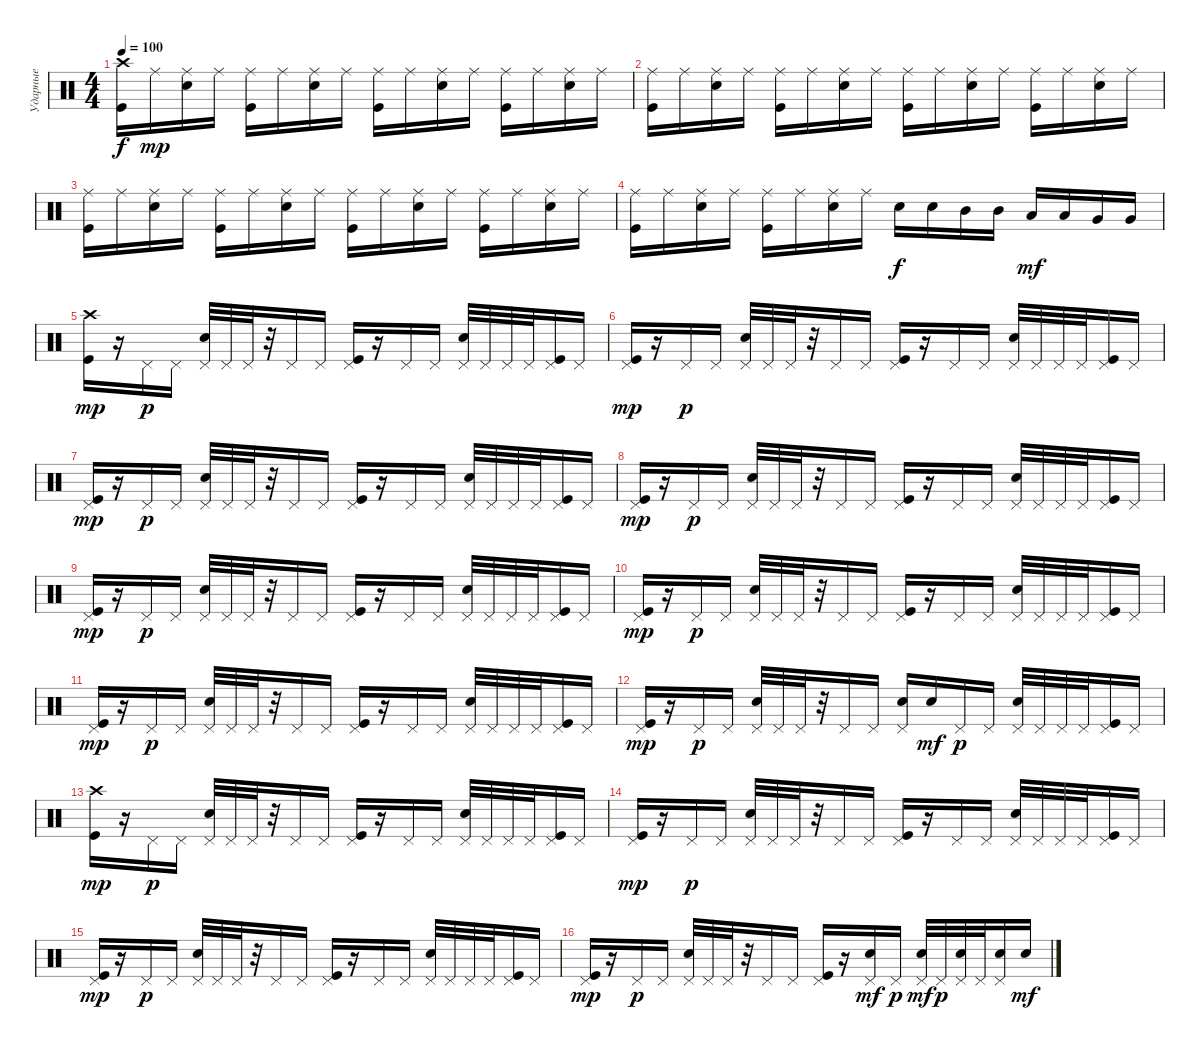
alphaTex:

\track ("Ударные" "Ударные") {instrument percussion}
\staff {score}
\articulation defaults
\ts (4 4)
\tempo 100
\clef neutral
\ks c
("Crash high (hit)" "Kick (hit)").16{dy f} "Ride (middle)".16{dy mp} ("Ride (middle)" "Snare (hit) 2").16 "Ride (middle)".16 ("Ride (middle)" "Kick (hit)").16 "Ride (middle)".16 ("Ride (middle)" "Snare (hit) 2").16 "Ride (middle)".16 ("Ride (middle)" "Kick (hit)").16 "Ride (middle)".16 ("Ride (middle)" "Snare (hit) 2").16 "Ride (middle)".16 ("Ride (middle)" "Kick (hit)").16 "Ride (middle)".16 ("Ride (middle)" "Snare (hit) 2").16 "Ride (middle)".16 |
("Ride (middle)" "Kick (hit)").16 "Ride (middle)".16 ("Ride (middle)" "Snare (hit) 2").16 "Ride (middle)".16 ("Ride (middle)" "Kick (hit)").16 "Ride (middle)".16 ("Ride (middle)" "Snare (hit) 2").16 "Ride (middle)".16 ("Ride (middle)" "Kick (hit)").16 "Ride (middle)".16 ("Ride (middle)" "Snare (hit) 2").16 "Ride (middle)".16 ("Ride (middle)" "Kick (hit)").16 "Ride (middle)".16 ("Ride (middle)" "Snare (hit) 2").16 "Ride (middle)".16 |
("Ride (middle)" "Kick (hit)").16 "Ride (middle)".16 ("Ride (middle)" "Snare (hit) 2").16 "Ride (middle)".16 ("Ride (middle)" "Kick (hit)").16 "Ride (middle)".16 ("Ride (middle)" "Snare (hit) 2").16 "Ride (middle)".16 ("Ride (middle)" "Kick (hit)").16 "Ride (middle)".16 ("Ride (middle)" "Snare (hit) 2").16 "Ride (middle)".16 ("Ride (middle)" "Kick (hit)").16 "Ride (middle)".16 ("Ride (middle)" "Snare (hit) 2").16 "Ride (middle)".16 |
("Ride (middle)" "Kick (hit)").16 "Ride (middle)".16 ("Ride (middle)" "Snare (hit) 2").16 "Ride (middle)".16 ("Ride (middle)" "Kick (hit)").16 "Ride (middle)".16 ("Ride (middle)" "Snare (hit) 2").16 "Ride (middle)".16 "Snare (hit) 2".16{dy f} "Snare (hit) 2".16 "Mid Tom (hit)".16 "Mid Tom (hit)".16 "Low Tom (hit)".16{dy mf} "Low Tom (hit)".16 "Very Low Tom (hit)".16 "Very Low Tom (hit)".16 |
("Crash high (hit)" "Kick (hit)").16{dy mp} r.16 "Pedal Hi-Hat (hit)".16{dy p} "Pedal Hi-Hat (hit)".16 ("Pedal Hi-Hat (hit)" "Snare (hit) 2").32 "Pedal Hi-Hat (hit)".32 "Pedal Hi-Hat (hit)".32 r.32 "Pedal Hi-Hat (hit)".16 "Pedal Hi-Hat (hit)".16 ("Pedal Hi-Hat (hit)" "Kick (hit)").16 r.16 "Pedal Hi-Hat (hit)".16 "Pedal Hi-Hat (hit)".16 ("Pedal Hi-Hat (hit)" "Snare (hit) 2").32 "Pedal Hi-Hat (hit)".32 "Pedal Hi-Hat (hit)".32 "Pedal Hi-Hat (hit)".32 ("Pedal Hi-Hat (hit)" "Kick (hit)").16 "Pedal Hi-Hat (hit)".16 |
("Pedal Hi-Hat (hit)" "Kick (hit)").16{dy mp} r.16 "Pedal Hi-Hat (hit)".16{dy p} "Pedal Hi-Hat (hit)".16 ("Pedal Hi-Hat (hit)" "Snare (hit) 2").32 "Pedal Hi-Hat (hit)".32 "Pedal Hi-Hat (hit)".32 r.32 "Pedal Hi-Hat (hit)".16 "Pedal Hi-Hat (hit)".16 ("Pedal Hi-Hat (hit)" "Kick (hit)").16 r.16 "Pedal Hi-Hat (hit)".16 "Pedal Hi-Hat (hit)".16 ("Pedal Hi-Hat (hit)" "Snare (hit) 2").32 "Pedal Hi-Hat (hit)".32 "Pedal Hi-Hat (hit)".32 "Pedal Hi-Hat (hit)".32 ("Pedal Hi-Hat (hit)" "Kick (hit)").16 "Pedal Hi-Hat (hit)".16 |
("Pedal Hi-Hat (hit)" "Kick (hit)").16{dy mp} r.16 "Pedal Hi-Hat (hit)".16{dy p} "Pedal Hi-Hat (hit)".16 ("Pedal Hi-Hat (hit)" "Snare (hit) 2").32 "Pedal Hi-Hat (hit)".32 "Pedal Hi-Hat (hit)".32 r.32 "Pedal Hi-Hat (hit)".16 "Pedal Hi-Hat (hit)".16 ("Pedal Hi-Hat (hit)" "Kick (hit)").16 r.16 "Pedal Hi-Hat (hit)".16 "Pedal Hi-Hat (hit)".16 ("Pedal Hi-Hat (hit)" "Snare (hit) 2").32 "Pedal Hi-Hat (hit)".32 "Pedal Hi-Hat (hit)".32 "Pedal Hi-Hat (hit)".32 ("Pedal Hi-Hat (hit)" "Kick (hit)").16 "Pedal Hi-Hat (hit)".16 |
("Pedal Hi-Hat (hit)" "Kick (hit)").16{dy mp} r.16 "Pedal Hi-Hat (hit)".16{dy p} "Pedal Hi-Hat (hit)".16 ("Pedal Hi-Hat (hit)" "Snare (hit) 2").32 "Pedal Hi-Hat (hit)".32 "Pedal Hi-Hat (hit)".32 r.32 "Pedal Hi-Hat (hit)".16 "Pedal Hi-Hat (hit)".16 ("Pedal Hi-Hat (hit)" "Kick (hit)").16 r.16 "Pedal Hi-Hat (hit)".16 "Pedal Hi-Hat (hit)".16 ("Pedal Hi-Hat (hit)" "Snare (hit) 2").32 "Pedal Hi-Hat (hit)".32 "Pedal Hi-Hat (hit)".32 "Pedal Hi-Hat (hit)".32 ("Pedal Hi-Hat (hit)" "Kick (hit)").16 "Pedal Hi-Hat (hit)".16 |
("Pedal Hi-Hat (hit)" "Kick (hit)").16{dy mp} r.16 "Pedal Hi-Hat (hit)".16{dy p} "Pedal Hi-Hat (hit)".16 ("Pedal Hi-Hat (hit)" "Snare (hit) 2").32 "Pedal Hi-Hat (hit)".32 "Pedal Hi-Hat (hit)".32 r.32 "Pedal Hi-Hat (hit)".16 "Pedal Hi-Hat (hit)".16 ("Pedal Hi-Hat (hit)" "Kick (hit)").16 r.16 "Pedal Hi-Hat (hit)".16 "Pedal Hi-Hat (hit)".16 ("Pedal Hi-Hat (hit)" "Snare (hit) 2").32 "Pedal Hi-Hat (hit)".32 "Pedal Hi-Hat (hit)".32 "Pedal Hi-Hat (hit)".32 ("Pedal Hi-Hat (hit)" "Kick (hit)").16 "Pedal Hi-Hat (hit)".16 |
("Pedal Hi-Hat (hit)" "Kick (hit)").16{dy mp} r.16 "Pedal Hi-Hat (hit)".16{dy p} "Pedal Hi-Hat (hit)".16 ("Pedal Hi-Hat (hit)" "Snare (hit) 2").32 "Pedal Hi-Hat (hit)".32 "Pedal Hi-Hat (hit)".32 r.32 "Pedal Hi-Hat (hit)".16 "Pedal Hi-Hat (hit)".16 ("Pedal Hi-Hat (hit)" "Kick (hit)").16 r.16 "Pedal Hi-Hat (hit)".16 "Pedal Hi-Hat (hit)".16 ("Pedal Hi-Hat (hit)" "Snare (hit) 2").32 "Pedal Hi-Hat (hit)".32 "Pedal Hi-Hat (hit)".32 "Pedal Hi-Hat (hit)".32 ("Pedal Hi-Hat (hit)" "Kick (hit)").16 "Pedal Hi-Hat (hit)".16 |
("Pedal Hi-Hat (hit)" "Kick (hit)").16{dy mp} r.16 "Pedal Hi-Hat (hit)".16{dy p} "Pedal Hi-Hat (hit)".16 ("Pedal Hi-Hat (hit)" "Snare (hit) 2").32 "Pedal Hi-Hat (hit)".32 "Pedal Hi-Hat (hit)".32 r.32 "Pedal Hi-Hat (hit)".16 "Pedal Hi-Hat (hit)".16 ("Pedal Hi-Hat (hit)" "Kick (hit)").16 r.16 "Pedal Hi-Hat (hit)".16 "Pedal Hi-Hat (hit)".16 ("Pedal Hi-Hat (hit)" "Snare (hit) 2").32 "Pedal Hi-Hat (hit)".32 "Pedal Hi-Hat (hit)".32 "Pedal Hi-Hat (hit)".32 ("Pedal Hi-Hat (hit)" "Kick (hit)").16 "Pedal Hi-Hat (hit)".16 |
("Pedal Hi-Hat (hit)" "Kick (hit)").16{dy mp} r.16 "Pedal Hi-Hat (hit)".16{dy p} "Pedal Hi-Hat (hit)".16 ("Pedal Hi-Hat (hit)" "Snare (hit) 2").32 "Pedal Hi-Hat (hit)".32 "Pedal Hi-Hat (hit)".32 r.32 "Pedal Hi-Hat (hit)".16 "Pedal Hi-Hat (hit)".16 ("Pedal Hi-Hat (hit)" "Snare (hit) 2").16 "Snare (hit) 2".16{dy mf} "Pedal Hi-Hat (hit)".16{dy p} "Pedal Hi-Hat (hit)".16 ("Pedal Hi-Hat (hit)" "Snare (hit) 2").32 "Pedal Hi-Hat (hit)".32 "Pedal Hi-Hat (hit)".32 "Pedal Hi-Hat (hit)".32 ("Pedal Hi-Hat (hit)" "Kick (hit)").16 "Pedal Hi-Hat (hit)".16 |
("Crash high (hit)" "Kick (hit)").16{dy mp} r.16 "Pedal Hi-Hat (hit)".16{dy p} "Pedal Hi-Hat (hit)".16 ("Pedal Hi-Hat (hit)" "Snare (hit) 2").32 "Pedal Hi-Hat (hit)".32 "Pedal Hi-Hat (hit)".32 r.32 "Pedal Hi-Hat (hit)".16 "Pedal Hi-Hat (hit)".16 ("Pedal Hi-Hat (hit)" "Kick (hit)").16 r.16 "Pedal Hi-Hat (hit)".16 "Pedal Hi-Hat (hit)".16 ("Pedal Hi-Hat (hit)" "Snare (hit) 2").32 "Pedal Hi-Hat (hit)".32 "Pedal Hi-Hat (hit)".32 "Pedal Hi-Hat (hit)".32 ("Pedal Hi-Hat (hit)" "Kick (hit)").16 "Pedal Hi-Hat (hit)".16 |
("Pedal Hi-Hat (hit)" "Kick (hit)").16{dy mp} r.16 "Pedal Hi-Hat (hit)".16{dy p} "Pedal Hi-Hat (hit)".16 ("Pedal Hi-Hat (hit)" "Snare (hit) 2").32 "Pedal Hi-Hat (hit)".32 "Pedal Hi-Hat (hit)".32 r.32 "Pedal Hi-Hat (hit)".16 "Pedal Hi-Hat (hit)".16 ("Pedal Hi-Hat (hit)" "Kick (hit)").16 r.16 "Pedal Hi-Hat (hit)".16 "Pedal Hi-Hat (hit)".16 ("Pedal Hi-Hat (hit)" "Snare (hit) 2").32 "Pedal Hi-Hat (hit)".32 "Pedal Hi-Hat (hit)".32 "Pedal Hi-Hat (hit)".32 ("Pedal Hi-Hat (hit)" "Kick (hit)").16 "Pedal Hi-Hat (hit)".16 |
("Pedal Hi-Hat (hit)" "Kick (hit)").16{dy mp} r.16 "Pedal Hi-Hat (hit)".16{dy p} "Pedal Hi-Hat (hit)".16 ("Pedal Hi-Hat (hit)" "Snare (hit) 2").32 "Pedal Hi-Hat (hit)".32 "Pedal Hi-Hat (hit)".32 r.32 "Pedal Hi-Hat (hit)".16 "Pedal Hi-Hat (hit)".16 ("Pedal Hi-Hat (hit)" "Kick (hit)").16 r.16 "Pedal Hi-Hat (hit)".16 "Pedal Hi-Hat (hit)".16 ("Pedal Hi-Hat (hit)" "Snare (hit) 2").32 "Pedal Hi-Hat (hit)".32 "Pedal Hi-Hat (hit)".32 "Pedal Hi-Hat (hit)".32 ("Pedal Hi-Hat (hit)" "Kick (hit)").16 "Pedal Hi-Hat (hit)".16 |
("Pedal Hi-Hat (hit)" "Kick (hit)").16{dy mp} r.16 "Pedal Hi-Hat (hit)".16{dy p} "Pedal Hi-Hat (hit)".16 ("Pedal Hi-Hat (hit)" "Snare (hit) 2").32 "Pedal Hi-Hat (hit)".32 "Pedal Hi-Hat (hit)".32 r.32 "Pedal Hi-Hat (hit)".16 "Pedal Hi-Hat (hit)".16 ("Pedal Hi-Hat (hit)" "Kick (hit)").16 r.16 ("Pedal Hi-Hat (hit)" "Snare (hit) 2").16{dy mf} "Pedal Hi-Hat (hit)".16{dy p} ("Pedal Hi-Hat (hit)" "Snare (hit) 2").32{dy mf} "Pedal Hi-Hat (hit)".32{dy p} ("Pedal Hi-Hat (hit)" "Snare (hit) 2").32 "Pedal Hi-Hat (hit)".32 ("Pedal Hi-Hat (hit)" "Snare (hit) 2").16 "Snare (hit) 2".16{dy mf}
